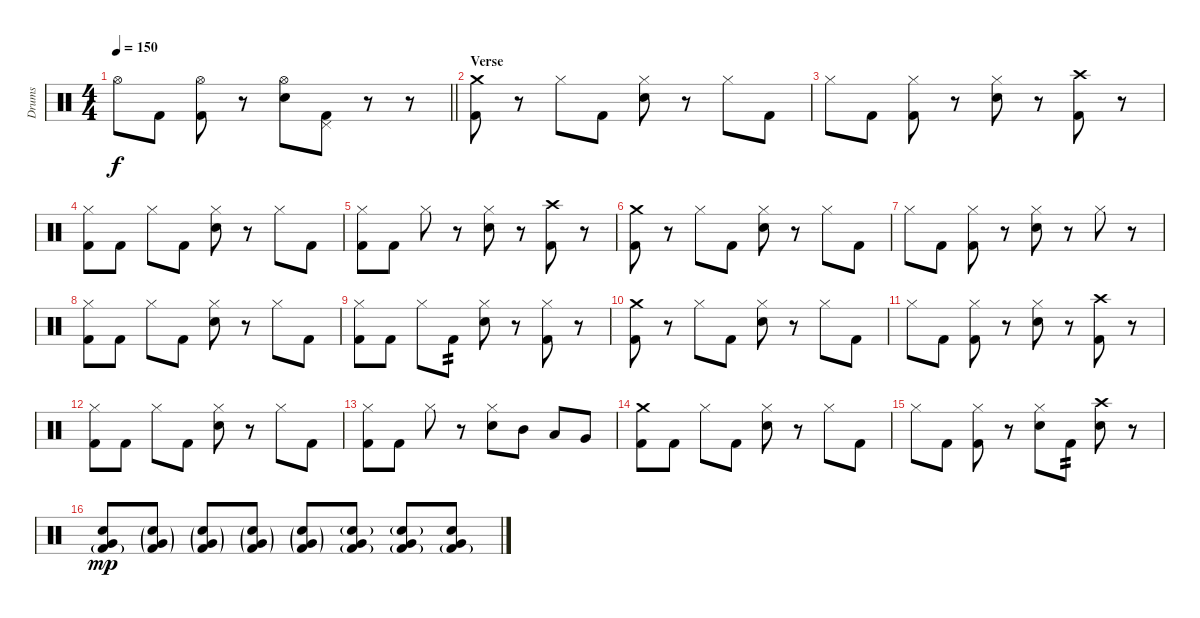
\track ("Drums" "Drums") {instrument percussion}
\staff {score}
\articulation defaults
\ts (4 4)
\tempo 150
\clef neutral
\barLineRight lightlight
\ks c "Hi-Hat (open)".8{dy f} "Kick (hit) 2".8
("Hi-Hat (open)" "Kick (hit) 2").8 r.8 ("Hi-Hat (open)" "Electric Snare (hit)").8 ("Pedal Hi-Hat (hit)" "Kick (hit) 2").8 r.8 r.8 |
\section ("" "Verse")
("Crash medium (hit)" "Kick (hit) 2").8 r.8 "Hi-Hat (closed)".8 "Kick (hit) 2".8 ("Hi-Hat (closed)" "Electric Snare (hit)").8 r.8 "Hi-Hat (closed)".8 "Kick (hit) 2".8 |
"Hi-Hat (closed)".8 "Kick (hit) 2".8 ("Hi-Hat (closed)" "Kick (hit) 2").8 r.8 ("Hi-Hat (closed)" "Electric Snare (hit)").8 r.8 ("Crash high (hit)" "Kick (hit) 2").8 r.8 |
("Hi-Hat (closed)" "Kick (hit) 2").8 "Kick (hit) 2".8 "Hi-Hat (closed)".8 "Kick (hit) 2".8 ("Hi-Hat (closed)" "Electric Snare (hit)").8 r.8 "Hi-Hat (closed)".8 "Kick (hit) 2".8 |
("Hi-Hat (closed)" "Kick (hit) 2").8 "Kick (hit) 2".8 "Hi-Hat (closed)".8 r.8 ("Hi-Hat (closed)" "Electric Snare (hit)").8 r.8 ("Crash high (hit)" "Kick (hit) 2").8 r.8 |
("Crash medium (hit)" "Kick (hit) 2").8 r.8 "Hi-Hat (closed)".8 "Kick (hit) 2".8 ("Hi-Hat (closed)" "Electric Snare (hit)").8 r.8 "Hi-Hat (closed)".8 "Kick (hit) 2".8 |
"Hi-Hat (closed)".8 "Kick (hit) 2".8 ("Hi-Hat (closed)" "Kick (hit) 2").8 r.8 ("Hi-Hat (closed)" "Electric Snare (hit)").8 r.8 "Hi-Hat (closed)".8 r.8 |
("Hi-Hat (closed)" "Kick (hit) 2").8 "Kick (hit) 2".8 "Hi-Hat (closed)".8 "Kick (hit) 2".8 ("Hi-Hat (closed)" "Electric Snare (hit)").8 r.8 "Hi-Hat (closed)".8 "Kick (hit) 2".8 |
("Hi-Hat (closed)" "Kick (hit) 2").8 "Kick (hit) 2".8 "Hi-Hat (closed)".8 "Kick (hit) 2".8{tp 2} ("Hi-Hat (closed)" "Electric Snare (hit)").8 r.8 ("Hi-Hat (closed)" "Kick (hit) 2").8 r.8 |
("Crash medium (hit)" "Kick (hit) 2").8 r.8 "Hi-Hat (closed)".8 "Kick (hit) 2".8 ("Hi-Hat (closed)" "Electric Snare (hit)").8 r.8 "Hi-Hat (closed)".8 "Kick (hit) 2".8 |
"Hi-Hat (closed)".8 "Kick (hit) 2".8 ("Hi-Hat (closed)" "Kick (hit) 2").8 r.8 ("Hi-Hat (closed)" "Electric Snare (hit)").8 r.8 ("Crash high (hit)" "Kick (hit) 2").8 r.8 |
("Hi-Hat (closed)" "Kick (hit) 2").8 "Kick (hit) 2".8 "Hi-Hat (closed)".8 "Kick (hit) 2".8 ("Hi-Hat (closed)" "Electric Snare (hit)").8 r.8 "Hi-Hat (closed)".8 "Kick (hit) 2".8 |
("Hi-Hat (closed)" "Kick (hit) 2").8 "Kick (hit) 2".8 "Hi-Hat (closed)".8 r.8 ("Hi-Hat (closed)" "Electric Snare (hit)").8 "Mid Tom (hit)".8 "Low Tom (hit)".8 "Very Low Tom (hit)".8 |
("Crash medium (hit)" "Kick (hit) 2").8 "Kick (hit) 2".8 "Hi-Hat (closed)".8 "Kick (hit) 2".8 ("Hi-Hat (closed)" "Electric Snare (hit)").8 r.8 "Hi-Hat (closed)".8 "Kick (hit) 2".8 |
"Hi-Hat (closed)".8 "Kick (hit) 2".8 ("Hi-Hat (closed)" "Kick (hit) 2").8 r.8 ("Hi-Hat (closed)" "Electric Snare (hit)").8 "Kick (hit) 2".8{tp 2} ("Crash high (hit)" "Electric Snare (hit)").8 r.8 |
("Electric Snare (hit)" "Very Low Tom (hit)" "Kick (hit) 2"{g}).8{dy mp} ("Electric Snare (hit)"{g} "Very Low Tom (hit)"{g} "Kick (hit) 2"{g}).8 ("Electric Snare (hit)"{g} "Very Low Tom (hit)"{g} "Kick (hit) 2"{g}).8 ("Electric Snare (hit)"{g} "Very Low Tom (hit)"{g} "Kick (hit) 2"{g}).8 ("Electric Snare (hit)"{g} "Very Low Tom (hit)"{g} "Kick (hit) 2"{g}).8 ("Electric Snare (hit)"{g} "Very Low Tom (hit)" "Kick (hit) 2"{g}).8 ("Electric Snare (hit)"{g} "Very Low Tom (hit)" "Kick (hit) 2"{g}).8 ("Electric Snare (hit)" "Very Low Tom (hit)" "Kick (hit) 2"{g}).8
